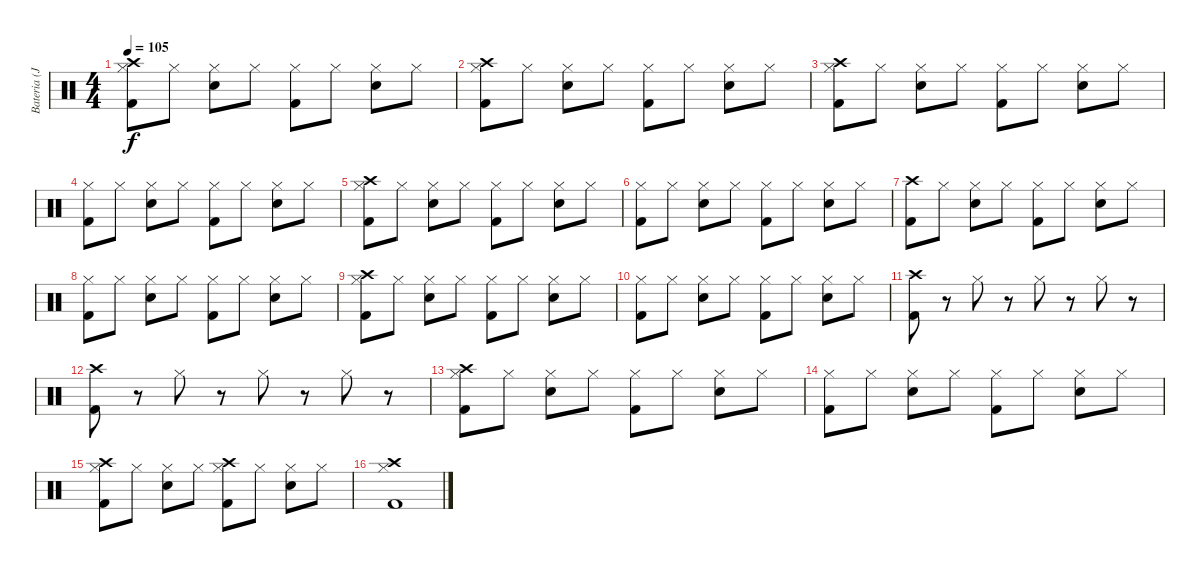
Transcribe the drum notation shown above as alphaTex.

\track ("Bateria (Javi Molina)" "Bateria (J") {instrument percussion}
\staff {score}
\articulation defaults
\ts (4 4)
\tempo 105
\clef neutral
\ks c
("Hi-Hat (closed)" "Crash high (hit)" "Kick (hit) 2").8{dy f} "Hi-Hat (closed)".8 ("Hi-Hat (closed)" "Snare (hit) 2").8 "Hi-Hat (closed)".8 ("Hi-Hat (closed)" "Kick (hit) 2").8 "Hi-Hat (closed)".8 ("Hi-Hat (closed)" "Snare (hit) 2").8 "Hi-Hat (closed)".8 |
("Hi-Hat (closed)" "Crash high (hit)" "Kick (hit) 2").8 "Hi-Hat (closed)".8 ("Hi-Hat (closed)" "Snare (hit) 2").8 "Hi-Hat (closed)".8 ("Hi-Hat (closed)" "Kick (hit) 2").8 "Hi-Hat (closed)".8 ("Hi-Hat (closed)" "Snare (hit) 2").8 "Hi-Hat (closed)".8 |
("Hi-Hat (closed)" "Crash high (hit)" "Kick (hit) 2").8 "Hi-Hat (closed)".8 ("Hi-Hat (closed)" "Snare (hit) 2").8 "Hi-Hat (closed)".8 ("Hi-Hat (closed)" "Kick (hit) 2").8 "Hi-Hat (closed)".8 ("Hi-Hat (closed)" "Snare (hit) 2").8 "Hi-Hat (closed)".8 |
("Hi-Hat (closed)" "Kick (hit) 2").8 "Hi-Hat (closed)".8 ("Hi-Hat (closed)" "Snare (hit) 2").8 "Hi-Hat (closed)".8 ("Hi-Hat (closed)" "Kick (hit) 2").8 "Hi-Hat (closed)".8 ("Hi-Hat (closed)" "Snare (hit) 2").8 "Hi-Hat (closed)".8 |
("Hi-Hat (closed)" "Crash high (hit)" "Kick (hit) 2").8 "Hi-Hat (closed)".8 ("Hi-Hat (closed)" "Snare (hit) 2").8 "Hi-Hat (closed)".8 ("Hi-Hat (closed)" "Kick (hit) 2").8 "Hi-Hat (closed)".8 ("Hi-Hat (closed)" "Snare (hit) 2").8 "Hi-Hat (closed)".8 |
("Hi-Hat (closed)" "Kick (hit) 2").8 "Hi-Hat (closed)".8 ("Hi-Hat (closed)" "Snare (hit) 2").8 "Hi-Hat (closed)".8 ("Hi-Hat (closed)" "Kick (hit) 2").8 "Hi-Hat (closed)".8 ("Hi-Hat (closed)" "Snare (hit) 2").8 "Hi-Hat (closed)".8 |
("Crash high (hit)" "Kick (hit) 2").8 "Hi-Hat (closed)".8 ("Hi-Hat (closed)" "Snare (hit) 2").8 "Hi-Hat (closed)".8 ("Hi-Hat (closed)" "Kick (hit) 2").8 "Hi-Hat (closed)".8 ("Hi-Hat (closed)" "Snare (hit) 2").8 "Hi-Hat (closed)".8 |
("Hi-Hat (closed)" "Kick (hit) 2").8 "Hi-Hat (closed)".8 ("Hi-Hat (closed)" "Snare (hit) 2").8 "Hi-Hat (closed)".8 ("Hi-Hat (closed)" "Kick (hit) 2").8 "Hi-Hat (closed)".8 ("Hi-Hat (closed)" "Snare (hit) 2").8 "Hi-Hat (closed)".8 |
("Hi-Hat (closed)" "Crash high (hit)" "Kick (hit) 2").8 "Hi-Hat (closed)".8 ("Hi-Hat (closed)" "Snare (hit) 2").8 "Hi-Hat (closed)".8 ("Hi-Hat (closed)" "Kick (hit) 2").8 "Hi-Hat (closed)".8 ("Hi-Hat (closed)" "Snare (hit) 2").8 "Hi-Hat (closed)".8 |
("Hi-Hat (closed)" "Kick (hit) 2").8 "Hi-Hat (closed)".8 ("Hi-Hat (closed)" "Snare (hit) 2").8 "Hi-Hat (closed)".8 ("Hi-Hat (closed)" "Kick (hit) 2").8 "Hi-Hat (closed)".8 ("Hi-Hat (closed)" "Snare (hit) 2").8 "Hi-Hat (closed)".8 |
("Crash high (hit)" "Kick (hit) 2").8 r.8 "Hi-Hat (closed)".8 r.8 "Hi-Hat (closed)".8 r.8 "Hi-Hat (closed)".8 r.8 |
("Crash high (hit)" "Kick (hit) 2").8 r.8 "Hi-Hat (closed)".8 r.8 "Hi-Hat (closed)".8 r.8 "Hi-Hat (closed)".8 r.8 |
("Hi-Hat (closed)" "Crash high (hit)" "Kick (hit) 2").8 "Hi-Hat (closed)".8 ("Hi-Hat (closed)" "Snare (hit) 2").8 "Hi-Hat (closed)".8 ("Hi-Hat (closed)" "Kick (hit) 2").8 "Hi-Hat (closed)".8 ("Hi-Hat (closed)" "Snare (hit) 2").8 "Hi-Hat (closed)".8 |
("Hi-Hat (closed)" "Kick (hit) 2").8 "Hi-Hat (closed)".8 ("Hi-Hat (closed)" "Snare (hit) 2").8 "Hi-Hat (closed)".8 ("Hi-Hat (closed)" "Kick (hit) 2").8 "Hi-Hat (closed)".8 ("Hi-Hat (closed)" "Snare (hit) 2").8 "Hi-Hat (closed)".8 |
("Hi-Hat (closed)" "Crash high (hit)" "Kick (hit) 2").8 "Hi-Hat (closed)".8 ("Hi-Hat (closed)" "Snare (hit) 2").8 "Hi-Hat (closed)".8 ("Hi-Hat (closed)" "Crash high (hit)" "Kick (hit) 2").8 "Hi-Hat (closed)".8 ("Hi-Hat (closed)" "Snare (hit) 2").8 "Hi-Hat (closed)".8 |
("Hi-Hat (closed)" "Crash high (hit)" "Kick (hit) 2").1
